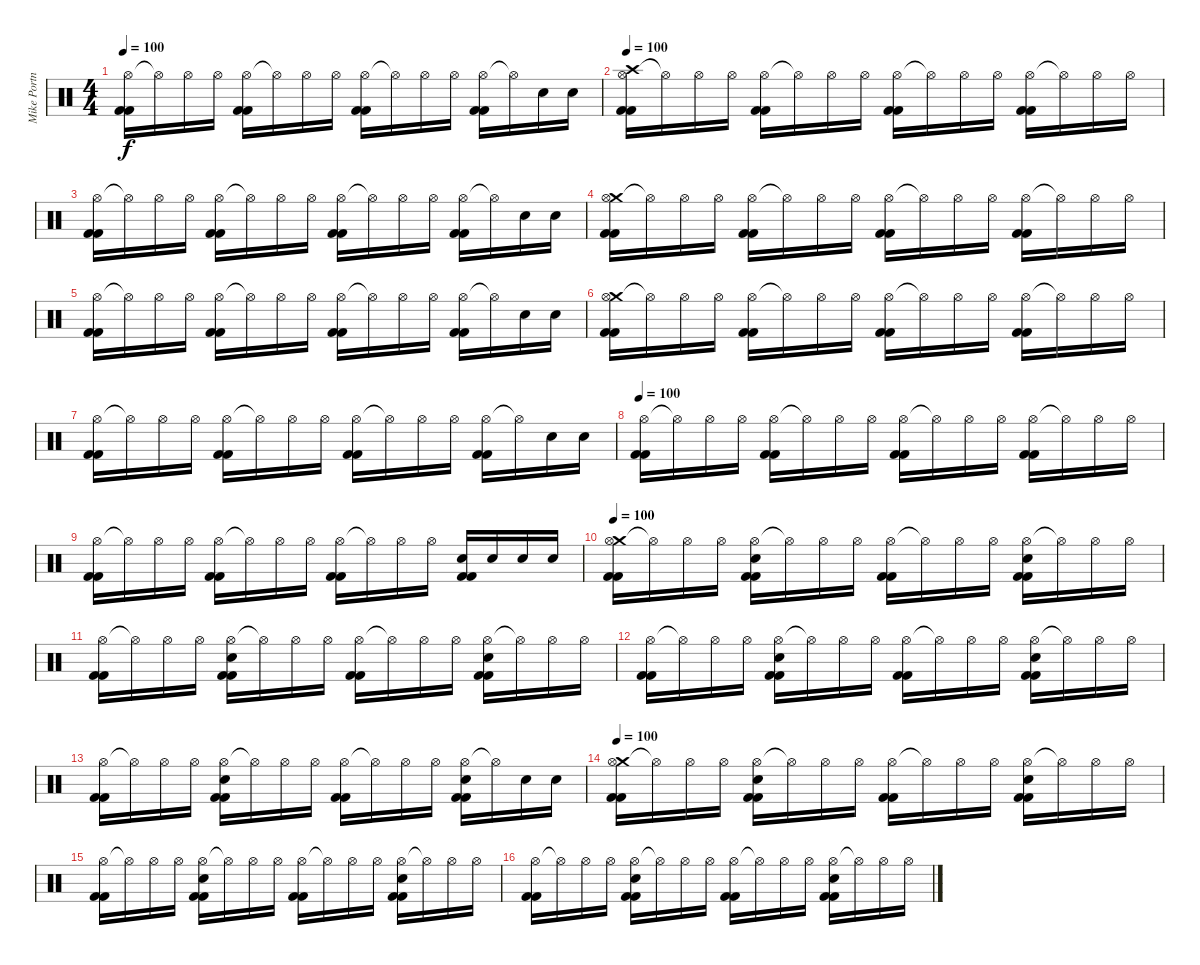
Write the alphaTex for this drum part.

\track ("Mike Portnoy" "Mike Portn") {instrument percussion}
\staff {score}
\articulation defaults
\ts (4 4)
\tempo 100
\clef neutral
\ks c
("Hi-Hat (open)" "Kick (hit) 2" "Kick (hit) 2").16{dy f} "Hi-Hat (open)"{t}.16 "Hi-Hat (open)".16 "Hi-Hat (open)".16 ("Hi-Hat (open)" "Kick (hit) 2" "Kick (hit) 2").16 "Hi-Hat (open)"{t}.16 "Hi-Hat (open)".16 "Hi-Hat (open)".16 ("Hi-Hat (open)" "Kick (hit) 2" "Kick (hit) 2").16 "Hi-Hat (open)"{t}.16 "Hi-Hat (open)".16 "Hi-Hat (open)".16 ("Hi-Hat (open)" "Kick (hit) 2" "Kick (hit) 2").16 "Hi-Hat (open)"{t}.16 "Electric Snare (hit)".16 "Electric Snare (hit)".16 |
\tempo 100
("Crash high (hit)" "Hi-Hat (open)" "Kick (hit) 2" "Kick (hit) 2").16 "Hi-Hat (open)"{t}.16 "Hi-Hat (open)".16 "Hi-Hat (open)".16 ("Hi-Hat (open)" "Kick (hit) 2" "Kick (hit) 2").16 "Hi-Hat (open)"{t}.16 "Hi-Hat (open)".16 "Hi-Hat (open)".16 ("Hi-Hat (open)" "Kick (hit) 2" "Kick (hit) 2").16 "Hi-Hat (open)"{t}.16 "Hi-Hat (open)".16 "Hi-Hat (open)".16 ("Hi-Hat (open)" "Kick (hit) 2" "Kick (hit) 2").16 "Hi-Hat (open)"{t}.16 "Hi-Hat (open)".16 "Hi-Hat (open)".16 |
("Hi-Hat (open)" "Kick (hit) 2" "Kick (hit) 2").16 "Hi-Hat (open)"{t}.16 "Hi-Hat (open)".16 "Hi-Hat (open)".16 ("Hi-Hat (open)" "Kick (hit) 2" "Kick (hit) 2").16 "Hi-Hat (open)"{t}.16 "Hi-Hat (open)".16 "Hi-Hat (open)".16 ("Hi-Hat (open)" "Kick (hit) 2" "Kick (hit) 2").16 "Hi-Hat (open)"{t}.16 "Hi-Hat (open)".16 "Hi-Hat (open)".16 ("Hi-Hat (open)" "Kick (hit) 2" "Kick (hit) 2").16 "Hi-Hat (open)"{t}.16 "Electric Snare (hit)".16 "Electric Snare (hit)".16 |
("Crash medium (hit)" "Hi-Hat (open)" "Kick (hit) 2" "Kick (hit) 2").16 "Hi-Hat (open)"{t}.16 "Hi-Hat (open)".16 "Hi-Hat (open)".16 ("Hi-Hat (open)" "Kick (hit) 2" "Kick (hit) 2").16 "Hi-Hat (open)"{t}.16 "Hi-Hat (open)".16 "Hi-Hat (open)".16 ("Hi-Hat (open)" "Kick (hit) 2" "Kick (hit) 2").16 "Hi-Hat (open)"{t}.16 "Hi-Hat (open)".16 "Hi-Hat (open)".16 ("Hi-Hat (open)" "Kick (hit) 2" "Kick (hit) 2").16 "Hi-Hat (open)"{t}.16 "Hi-Hat (open)".16 "Hi-Hat (open)".16 |
("Hi-Hat (open)" "Kick (hit) 2" "Kick (hit) 2").16 "Hi-Hat (open)"{t}.16 "Hi-Hat (open)".16 "Hi-Hat (open)".16 ("Hi-Hat (open)" "Kick (hit) 2" "Kick (hit) 2").16 "Hi-Hat (open)"{t}.16 "Hi-Hat (open)".16 "Hi-Hat (open)".16 ("Hi-Hat (open)" "Kick (hit) 2" "Kick (hit) 2").16 "Hi-Hat (open)"{t}.16 "Hi-Hat (open)".16 "Hi-Hat (open)".16 ("Hi-Hat (open)" "Kick (hit) 2" "Kick (hit) 2").16 "Hi-Hat (open)"{t}.16 "Electric Snare (hit)".16 "Electric Snare (hit)".16 |
("Crash medium (hit)" "Hi-Hat (open)" "Kick (hit) 2" "Kick (hit) 2").16 "Hi-Hat (open)"{t}.16 "Hi-Hat (open)".16 "Hi-Hat (open)".16 ("Hi-Hat (open)" "Kick (hit) 2" "Kick (hit) 2").16 "Hi-Hat (open)"{t}.16 "Hi-Hat (open)".16 "Hi-Hat (open)".16 ("Hi-Hat (open)" "Kick (hit) 2" "Kick (hit) 2").16 "Hi-Hat (open)"{t}.16 "Hi-Hat (open)".16 "Hi-Hat (open)".16 ("Hi-Hat (open)" "Kick (hit) 2" "Kick (hit) 2").16 "Hi-Hat (open)"{t}.16 "Hi-Hat (open)".16 "Hi-Hat (open)".16 |
("Hi-Hat (open)" "Kick (hit) 2" "Kick (hit) 2").16 "Hi-Hat (open)"{t}.16 "Hi-Hat (open)".16 "Hi-Hat (open)".16 ("Hi-Hat (open)" "Kick (hit) 2" "Kick (hit) 2").16 "Hi-Hat (open)"{t}.16 "Hi-Hat (open)".16 "Hi-Hat (open)".16 ("Hi-Hat (open)" "Kick (hit) 2" "Kick (hit) 2").16 "Hi-Hat (open)"{t}.16 "Hi-Hat (open)".16 "Hi-Hat (open)".16 ("Hi-Hat (open)" "Kick (hit) 2" "Kick (hit) 2").16 "Hi-Hat (open)"{t}.16 "Electric Snare (hit)".16 "Electric Snare (hit)".16 |
\tempo 100
("Hi-Hat (open)" "Kick (hit) 2" "Kick (hit) 2").16 "Hi-Hat (open)"{t}.16 "Hi-Hat (open)".16 "Hi-Hat (open)".16 ("Hi-Hat (open)" "Kick (hit) 2" "Kick (hit) 2").16 "Hi-Hat (open)"{t}.16 "Hi-Hat (open)".16 "Hi-Hat (open)".16 ("Hi-Hat (open)" "Kick (hit) 2" "Kick (hit) 2").16 "Hi-Hat (open)"{t}.16 "Hi-Hat (open)".16 "Hi-Hat (open)".16 ("Hi-Hat (open)" "Kick (hit) 2" "Kick (hit) 2").16 "Hi-Hat (open)"{t}.16 "Hi-Hat (open)".16 "Hi-Hat (open)".16 |
("Hi-Hat (open)" "Kick (hit) 2" "Kick (hit) 2").16 "Hi-Hat (open)"{t}.16 "Hi-Hat (open)".16 "Hi-Hat (open)".16 ("Hi-Hat (open)" "Kick (hit) 2" "Kick (hit) 2").16 "Hi-Hat (open)"{t}.16 "Hi-Hat (open)".16 "Hi-Hat (open)".16 ("Hi-Hat (open)" "Kick (hit) 2" "Kick (hit) 2").16 "Hi-Hat (open)"{t}.16 "Hi-Hat (open)".16 "Hi-Hat (open)".16 ("Electric Snare (hit)" "Kick (hit) 2" "Kick (hit) 2").16 "Electric Snare (hit)".16 "Electric Snare (hit)".16 "Electric Snare (hit)".16 |
\tempo 100
("Crash medium (hit)" "Hi-Hat (open)" "Kick (hit) 2" "Kick (hit) 2").16 "Hi-Hat (open)"{t}.16 "Hi-Hat (open)".16 "Hi-Hat (open)".16 ("Hi-Hat (open)" "Electric Snare (hit)" "Kick (hit) 2" "Kick (hit) 2").16 "Hi-Hat (open)"{t}.16 "Hi-Hat (open)".16 "Hi-Hat (open)".16 ("Hi-Hat (open)" "Kick (hit) 2" "Kick (hit) 2").16 "Hi-Hat (open)"{t}.16 "Hi-Hat (open)".16 "Hi-Hat (open)".16 ("Hi-Hat (open)" "Electric Snare (hit)" "Kick (hit) 2" "Kick (hit) 2").16 "Hi-Hat (open)"{t}.16 "Hi-Hat (open)".16 "Hi-Hat (open)".16 |
("Hi-Hat (open)" "Kick (hit) 2" "Kick (hit) 2").16 "Hi-Hat (open)"{t}.16 "Hi-Hat (open)".16 "Hi-Hat (open)".16 ("Hi-Hat (open)" "Electric Snare (hit)" "Kick (hit) 2" "Kick (hit) 2").16 "Hi-Hat (open)"{t}.16 "Hi-Hat (open)".16 "Hi-Hat (open)".16 ("Hi-Hat (open)" "Kick (hit) 2" "Kick (hit) 2").16 "Hi-Hat (open)"{t}.16 "Hi-Hat (open)".16 "Hi-Hat (open)".16 ("Hi-Hat (open)" "Electric Snare (hit)" "Kick (hit) 2" "Kick (hit) 2").16 "Hi-Hat (open)"{t}.16 "Hi-Hat (open)".16 "Hi-Hat (open)".16 |
("Hi-Hat (open)" "Kick (hit) 2" "Kick (hit) 2").16 "Hi-Hat (open)"{t}.16 "Hi-Hat (open)".16 "Hi-Hat (open)".16 ("Hi-Hat (open)" "Electric Snare (hit)" "Kick (hit) 2" "Kick (hit) 2").16 "Hi-Hat (open)"{t}.16 "Hi-Hat (open)".16 "Hi-Hat (open)".16 ("Hi-Hat (open)" "Kick (hit) 2" "Kick (hit) 2").16 "Hi-Hat (open)"{t}.16 "Hi-Hat (open)".16 "Hi-Hat (open)".16 ("Hi-Hat (open)" "Electric Snare (hit)" "Kick (hit) 2" "Kick (hit) 2").16 "Hi-Hat (open)"{t}.16 "Hi-Hat (open)".16 "Hi-Hat (open)".16 |
("Hi-Hat (open)" "Kick (hit) 2" "Kick (hit) 2").16 "Hi-Hat (open)"{t}.16 "Hi-Hat (open)".16 "Hi-Hat (open)".16 ("Hi-Hat (open)" "Electric Snare (hit)" "Kick (hit) 2" "Kick (hit) 2").16 "Hi-Hat (open)"{t}.16 "Hi-Hat (open)".16 "Hi-Hat (open)".16 ("Hi-Hat (open)" "Kick (hit) 2" "Kick (hit) 2").16 "Hi-Hat (open)"{t}.16 "Hi-Hat (open)".16 "Hi-Hat (open)".16 ("Hi-Hat (open)" "Electric Snare (hit)" "Kick (hit) 2" "Kick (hit) 2").16 "Hi-Hat (open)"{t}.16 "Electric Snare (hit)".16 "Electric Snare (hit)".16 |
\tempo 100
("Crash medium (hit)" "Hi-Hat (open)" "Kick (hit) 2" "Kick (hit) 2").16 "Hi-Hat (open)"{t}.16 "Hi-Hat (open)".16 "Hi-Hat (open)".16 ("Hi-Hat (open)" "Electric Snare (hit)" "Kick (hit) 2" "Kick (hit) 2").16 "Hi-Hat (open)"{t}.16 "Hi-Hat (open)".16 "Hi-Hat (open)".16 ("Hi-Hat (open)" "Kick (hit) 2" "Kick (hit) 2").16 "Hi-Hat (open)"{t}.16 "Hi-Hat (open)".16 "Hi-Hat (open)".16 ("Hi-Hat (open)" "Electric Snare (hit)" "Kick (hit) 2" "Kick (hit) 2").16 "Hi-Hat (open)"{t}.16 "Hi-Hat (open)".16 "Hi-Hat (open)".16 |
("Hi-Hat (open)" "Kick (hit) 2" "Kick (hit) 2").16 "Hi-Hat (open)"{t}.16 "Hi-Hat (open)".16 "Hi-Hat (open)".16 ("Hi-Hat (open)" "Electric Snare (hit)" "Kick (hit) 2" "Kick (hit) 2").16 "Hi-Hat (open)"{t}.16 "Hi-Hat (open)".16 "Hi-Hat (open)".16 ("Hi-Hat (open)" "Kick (hit) 2" "Kick (hit) 2").16 "Hi-Hat (open)"{t}.16 "Hi-Hat (open)".16 "Hi-Hat (open)".16 ("Hi-Hat (open)" "Electric Snare (hit)" "Kick (hit) 2" "Kick (hit) 2").16 "Hi-Hat (open)"{t}.16 "Hi-Hat (open)".16 "Hi-Hat (open)".16 |
("Hi-Hat (open)" "Kick (hit) 2" "Kick (hit) 2").16 "Hi-Hat (open)"{t}.16 "Hi-Hat (open)".16 "Hi-Hat (open)".16 ("Hi-Hat (open)" "Electric Snare (hit)" "Kick (hit) 2" "Kick (hit) 2").16 "Hi-Hat (open)"{t}.16 "Hi-Hat (open)".16 "Hi-Hat (open)".16 ("Hi-Hat (open)" "Kick (hit) 2" "Kick (hit) 2").16 "Hi-Hat (open)"{t}.16 "Hi-Hat (open)".16 "Hi-Hat (open)".16 ("Hi-Hat (open)" "Electric Snare (hit)" "Kick (hit) 2" "Kick (hit) 2").16 "Hi-Hat (open)"{t}.16 "Hi-Hat (open)".16 "Hi-Hat (open)".16
